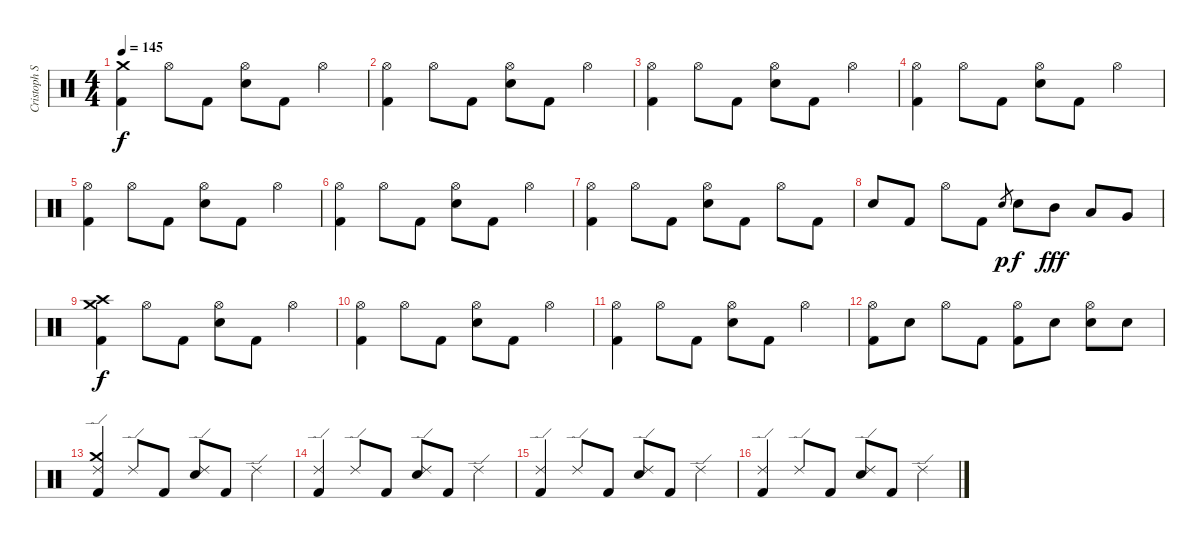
\track ("Cristoph Schneider" "Cristoph S") {instrument percussion}
\staff {score}
\articulation defaults
\ts (4 4)
\tempo 145
\clef neutral
\ks c
("Kick (hit) 2" "Crash medium (hit)").4{dy f} "Hi-Hat (open)".8 "Kick (hit) 2".8 ("Hi-Hat (open)" "Snare (hit) 2").8 "Kick (hit) 2".8 "Hi-Hat (open)".4 |
("Kick (hit) 2" "Hi-Hat (open)").4 "Hi-Hat (open)".8 "Kick (hit) 2".8 ("Hi-Hat (open)" "Snare (hit) 2").8 "Kick (hit) 2".8 "Hi-Hat (open)".4 |
("Kick (hit) 2" "Hi-Hat (open)").4 "Hi-Hat (open)".8 "Kick (hit) 2".8 ("Hi-Hat (open)" "Snare (hit) 2").8 "Kick (hit) 2".8 "Hi-Hat (open)".4 |
("Kick (hit) 2" "Hi-Hat (open)").4 "Hi-Hat (open)".8 "Kick (hit) 2".8 ("Hi-Hat (open)" "Snare (hit) 2").8 "Kick (hit) 2".8 "Hi-Hat (open)".4 |
("Kick (hit) 2" "Hi-Hat (open)").4 "Hi-Hat (open)".8 "Kick (hit) 2".8 ("Hi-Hat (open)" "Snare (hit) 2").8 "Kick (hit) 2".8 "Hi-Hat (open)".4 |
("Kick (hit) 2" "Hi-Hat (open)").4 "Hi-Hat (open)".8 "Kick (hit) 2".8 ("Hi-Hat (open)" "Snare (hit) 2").8 "Kick (hit) 2".8 "Hi-Hat (open)".4 |
("Kick (hit) 2" "Hi-Hat (open)").4 "Hi-Hat (open)".8 "Kick (hit) 2".8 ("Hi-Hat (open)" "Snare (hit) 2").8 "Kick (hit) 2".8 "Hi-Hat (open)".8 "Kick (hit) 2".8 |
"Snare (hit) 2".8 "Kick (hit) 2".8 "Hi-Hat (open)".8 "Kick (hit) 2".8 "Snare (hit) 2".8{gr dy p} "Snare (hit) 2".8{dy f} "Mid Tom (hit)".8{dy fff} "Low Tom (hit)".8 "Very Low Tom (hit)".8 |
("Crash high (hit)" "Crash medium (hit)" "Kick (hit) 2").4{dy f} "Hi-Hat (open)".8 "Kick (hit) 2".8 ("Hi-Hat (open)" "Electric Snare (hit)").8 "Kick (hit) 2".8 "Hi-Hat (open)".4 |
("Hi-Hat (open)" "Kick (hit) 2").4 "Hi-Hat (open)".8 "Kick (hit) 2".8 ("Hi-Hat (open)" "Electric Snare (hit)").8 "Kick (hit) 2".8 "Hi-Hat (open)".4 |
("Hi-Hat (open)" "Kick (hit) 2").4 "Hi-Hat (open)".8 "Kick (hit) 2".8 ("Hi-Hat (open)" "Electric Snare (hit)").8 "Kick (hit) 2".8 "Hi-Hat (open)".4 |
("Kick (hit) 2" "Hi-Hat (open)").8 "Electric Snare (hit)".8 "Hi-Hat (open)".8 "Kick (hit) 2".8 ("Kick (hit) 2" "Hi-Hat (open)").8 "Electric Snare (hit)".8 ("Hi-Hat (open)" "Electric Snare (hit)").8 "Electric Snare (hit)".8 |
("Ride (edge) 2" "Crash medium (hit)" "Kick (hit) 2").4 "Ride (edge) 2".8 "Kick (hit) 2".8 ("Ride (edge) 2" "Electric Snare (hit)").8 "Kick (hit) 2".8 "Ride (edge) 2".4 |
("Ride (edge) 2" "Kick (hit) 2").4 "Ride (edge) 2".8 "Kick (hit) 2".8 ("Ride (edge) 2" "Electric Snare (hit)").8 "Kick (hit) 2".8 "Ride (edge) 2".4 |
("Ride (edge) 2" "Kick (hit) 2").4 "Ride (edge) 2".8 "Kick (hit) 2".8 ("Ride (edge) 2" "Electric Snare (hit)").8 "Kick (hit) 2".8 "Ride (edge) 2".4 |
("Ride (edge) 2" "Kick (hit) 2").4 "Ride (edge) 2".8 "Kick (hit) 2".8 ("Ride (edge) 2" "Electric Snare (hit)").8 "Kick (hit) 2".8 "Ride (edge) 2".4
